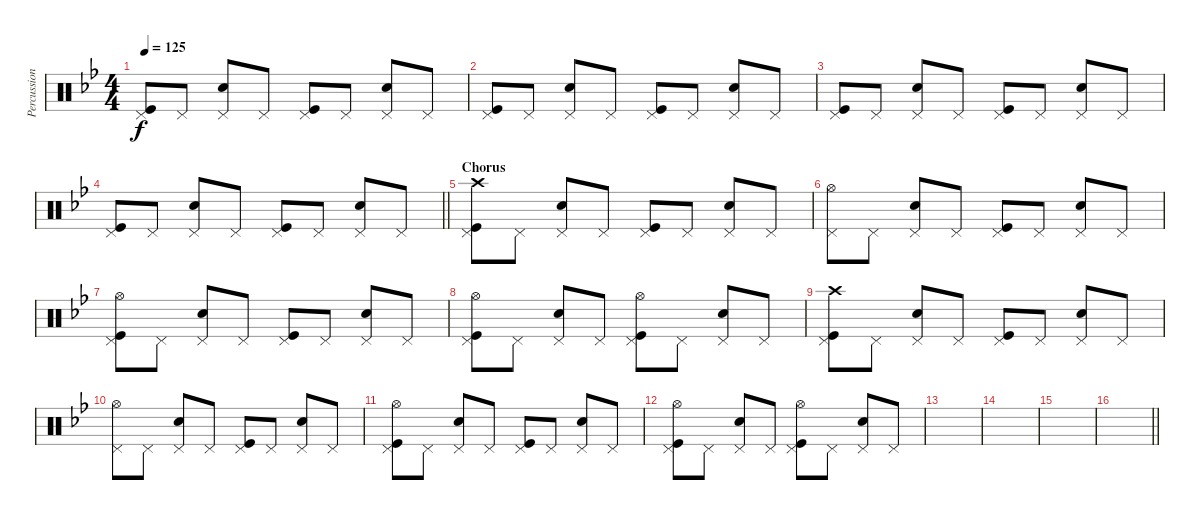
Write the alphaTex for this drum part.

\track ("Percussion" "Percussion") {instrument percussion}
\staff {score}
\articulation defaults
\ts (4 4)
\tempo 125
\clef neutral
\ks bb
("Kick (hit)" "Pedal Hi-Hat (hit)").8{dy f} "Pedal Hi-Hat (hit)".8 ("Snare (hit) 2" "Pedal Hi-Hat (hit)").8 "Pedal Hi-Hat (hit)".8 ("Kick (hit)" "Pedal Hi-Hat (hit)").8 "Pedal Hi-Hat (hit)".8 ("Snare (hit) 2" "Pedal Hi-Hat (hit)").8 "Pedal Hi-Hat (hit)".8 |
("Kick (hit)" "Pedal Hi-Hat (hit)").8 "Pedal Hi-Hat (hit)".8 ("Snare (hit) 2" "Pedal Hi-Hat (hit)").8 "Pedal Hi-Hat (hit)".8 ("Kick (hit)" "Pedal Hi-Hat (hit)").8 "Pedal Hi-Hat (hit)".8 ("Snare (hit) 2" "Pedal Hi-Hat (hit)").8 "Pedal Hi-Hat (hit)".8 |
("Kick (hit)" "Pedal Hi-Hat (hit)").8 "Pedal Hi-Hat (hit)".8 ("Snare (hit) 2" "Pedal Hi-Hat (hit)").8 "Pedal Hi-Hat (hit)".8 ("Kick (hit)" "Pedal Hi-Hat (hit)").8 "Pedal Hi-Hat (hit)".8 ("Snare (hit) 2" "Pedal Hi-Hat (hit)").8 "Pedal Hi-Hat (hit)".8 |
\barLineRight lightlight
("Kick (hit)" "Pedal Hi-Hat (hit)").8 "Pedal Hi-Hat (hit)".8 ("Snare (hit) 2" "Pedal Hi-Hat (hit)").8 "Pedal Hi-Hat (hit)".8 ("Kick (hit)" "Pedal Hi-Hat (hit)").8 "Pedal Hi-Hat (hit)".8 ("Snare (hit) 2" "Pedal Hi-Hat (hit)").8 "Pedal Hi-Hat (hit)".8 |
\section ("" "Chorus")
("Crash high (hit)" "Kick (hit)" "Pedal Hi-Hat (hit)").8 "Pedal Hi-Hat (hit)".8 ("Snare (hit) 2" "Pedal Hi-Hat (hit)").8 "Pedal Hi-Hat (hit)".8 ("Kick (hit)" "Pedal Hi-Hat (hit)").8 "Pedal Hi-Hat (hit)".8 ("Snare (hit) 2" "Pedal Hi-Hat (hit)").8 "Pedal Hi-Hat (hit)".8 |
("Hi-Hat (open)" "Pedal Hi-Hat (hit)").8 "Pedal Hi-Hat (hit)".8 ("Snare (hit) 2" "Pedal Hi-Hat (hit)").8 "Pedal Hi-Hat (hit)".8 ("Kick (hit)" "Pedal Hi-Hat (hit)").8 "Pedal Hi-Hat (hit)".8 ("Snare (hit) 2" "Pedal Hi-Hat (hit)").8 "Pedal Hi-Hat (hit)".8 |
("Hi-Hat (open)" "Kick (hit)" "Pedal Hi-Hat (hit)").8 "Pedal Hi-Hat (hit)".8 ("Snare (hit) 2" "Pedal Hi-Hat (hit)").8 "Pedal Hi-Hat (hit)".8 ("Kick (hit)" "Pedal Hi-Hat (hit)").8 "Pedal Hi-Hat (hit)".8 ("Snare (hit) 2" "Pedal Hi-Hat (hit)").8 "Pedal Hi-Hat (hit)".8 |
("Hi-Hat (open)" "Kick (hit)" "Pedal Hi-Hat (hit)").8 "Pedal Hi-Hat (hit)".8 ("Snare (hit) 2" "Pedal Hi-Hat (hit)").8 "Pedal Hi-Hat (hit)".8 ("Hi-Hat (open)" "Kick (hit)" "Pedal Hi-Hat (hit)").8 "Pedal Hi-Hat (hit)".8 ("Snare (hit) 2" "Pedal Hi-Hat (hit)").8 "Pedal Hi-Hat (hit)".8 |
("Crash high (hit)" "Kick (hit)" "Pedal Hi-Hat (hit)").8 "Pedal Hi-Hat (hit)".8 ("Snare (hit) 2" "Pedal Hi-Hat (hit)").8 "Pedal Hi-Hat (hit)".8 ("Kick (hit)" "Pedal Hi-Hat (hit)").8 "Pedal Hi-Hat (hit)".8 ("Snare (hit) 2" "Pedal Hi-Hat (hit)").8 "Pedal Hi-Hat (hit)".8 |
("Hi-Hat (open)" "Pedal Hi-Hat (hit)").8 "Pedal Hi-Hat (hit)".8 ("Snare (hit) 2" "Pedal Hi-Hat (hit)").8 "Pedal Hi-Hat (hit)".8 ("Kick (hit)" "Pedal Hi-Hat (hit)").8 "Pedal Hi-Hat (hit)".8 ("Snare (hit) 2" "Pedal Hi-Hat (hit)").8 "Pedal Hi-Hat (hit)".8 |
("Hi-Hat (open)" "Kick (hit)" "Pedal Hi-Hat (hit)").8 "Pedal Hi-Hat (hit)".8 ("Snare (hit) 2" "Pedal Hi-Hat (hit)").8 "Pedal Hi-Hat (hit)".8 ("Kick (hit)" "Pedal Hi-Hat (hit)").8 "Pedal Hi-Hat (hit)".8 ("Snare (hit) 2" "Pedal Hi-Hat (hit)").8 "Pedal Hi-Hat (hit)".8 |
("Hi-Hat (open)" "Kick (hit)" "Pedal Hi-Hat (hit)").8 "Pedal Hi-Hat (hit)".8 ("Snare (hit) 2" "Pedal Hi-Hat (hit)").8 "Pedal Hi-Hat (hit)".8 ("Hi-Hat (open)" "Kick (hit)" "Pedal Hi-Hat (hit)").8 "Pedal Hi-Hat (hit)".8 ("Snare (hit) 2" "Pedal Hi-Hat (hit)").8 "Pedal Hi-Hat (hit)".8 |
|
|
|
\barLineRight lightlight
